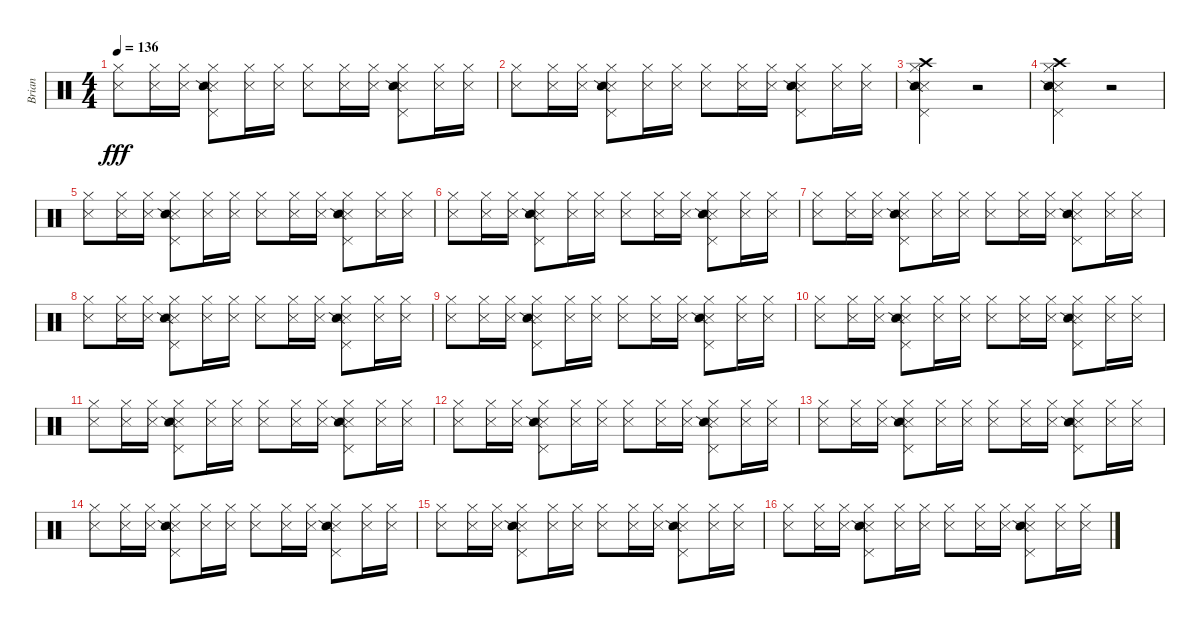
\track ("Brian" "Brian") {instrument percussion}
\staff {score}
\articulation defaults
\ts (4 4)
\tempo 136
\clef neutral
\ks c
("Hi-Hat (closed)" "Metronome (hit)").8{dy fff} ("Hi-Hat (closed)" "Metronome (hit)").16 ("Hi-Hat (closed)" "Metronome (hit)").16 ("Pedal Hi-Hat (hit)" "Snare (side stick) 3" "Hi-Hat (closed)" "Snare (side stick) 2").8 ("Hi-Hat (closed)" "Metronome (hit)").16 ("Hi-Hat (closed)" "Metronome (hit)").16 ("Hi-Hat (closed)" "Metronome (hit)").8 ("Hi-Hat (closed)" "Metronome (hit)").16 ("Hi-Hat (closed)" "Metronome (hit)").16 ("Pedal Hi-Hat (hit)" "Snare (side stick) 3" "Hi-Hat (closed)" "Snare (side stick) 2").8 ("Hi-Hat (closed)" "Metronome (hit)").16 ("Hi-Hat (closed)" "Metronome (hit)").16 |
("Hi-Hat (closed)" "Metronome (hit)").8 ("Hi-Hat (closed)" "Metronome (hit)").16 ("Hi-Hat (closed)" "Metronome (hit)").16 ("Pedal Hi-Hat (hit)" "Snare (side stick) 3" "Hi-Hat (closed)" "Snare (side stick) 2").8 ("Hi-Hat (closed)" "Metronome (hit)").16 ("Hi-Hat (closed)" "Metronome (hit)").16 ("Hi-Hat (closed)" "Metronome (hit)").8 ("Hi-Hat (closed)" "Metronome (hit)").16 ("Hi-Hat (closed)" "Metronome (hit)").16 ("Pedal Hi-Hat (hit)" "Snare (side stick) 3" "Hi-Hat (closed)" "Snare (side stick) 2").8 ("Hi-Hat (closed)" "Metronome (hit)").16 ("Hi-Hat (closed)" "Metronome (hit)").16 |
("Crash high (hit)" "Pedal Hi-Hat (hit)" "Snare (side stick) 3" "Hi-Hat (closed)" "Snare (side stick) 2").2 r.2 |
("Crash high (hit)" "Pedal Hi-Hat (hit)" "Snare (side stick) 3" "Hi-Hat (closed)" "Snare (side stick) 2").2 r.2 |
("Hi-Hat (closed)" "Metronome (hit)").8 ("Hi-Hat (closed)" "Metronome (hit)").16 ("Hi-Hat (closed)" "Metronome (hit)").16 ("Pedal Hi-Hat (hit)" "Snare (side stick) 3" "Hi-Hat (closed)" "Snare (side stick) 2").8 ("Hi-Hat (closed)" "Metronome (hit)").16 ("Hi-Hat (closed)" "Metronome (hit)").16 ("Hi-Hat (closed)" "Metronome (hit)").8 ("Hi-Hat (closed)" "Metronome (hit)").16 ("Hi-Hat (closed)" "Metronome (hit)").16 ("Pedal Hi-Hat (hit)" "Snare (side stick) 3" "Hi-Hat (closed)" "Snare (side stick) 2").8 ("Hi-Hat (closed)" "Metronome (hit)").16 ("Hi-Hat (closed)" "Metronome (hit)").16 |
("Hi-Hat (closed)" "Metronome (hit)").8 ("Hi-Hat (closed)" "Metronome (hit)").16 ("Hi-Hat (closed)" "Metronome (hit)").16 ("Pedal Hi-Hat (hit)" "Snare (side stick) 3" "Hi-Hat (closed)" "Snare (side stick) 2").8 ("Hi-Hat (closed)" "Metronome (hit)").16 ("Hi-Hat (closed)" "Metronome (hit)").16 ("Hi-Hat (closed)" "Metronome (hit)").8 ("Hi-Hat (closed)" "Metronome (hit)").16 ("Hi-Hat (closed)" "Metronome (hit)").16 ("Pedal Hi-Hat (hit)" "Snare (side stick) 3" "Hi-Hat (closed)" "Snare (side stick) 2").8 ("Hi-Hat (closed)" "Metronome (hit)").16 ("Hi-Hat (closed)" "Metronome (hit)").16 |
("Hi-Hat (closed)" "Metronome (hit)").8 ("Hi-Hat (closed)" "Metronome (hit)").16 ("Hi-Hat (closed)" "Metronome (hit)").16 ("Pedal Hi-Hat (hit)" "Snare (side stick) 3" "Hi-Hat (closed)" "Snare (side stick) 2").8 ("Hi-Hat (closed)" "Metronome (hit)").16 ("Hi-Hat (closed)" "Metronome (hit)").16 ("Hi-Hat (closed)" "Metronome (hit)").8 ("Hi-Hat (closed)" "Metronome (hit)").16 ("Hi-Hat (closed)" "Metronome (hit)").16 ("Pedal Hi-Hat (hit)" "Snare (side stick) 3" "Hi-Hat (closed)" "Snare (side stick) 2").8 ("Hi-Hat (closed)" "Metronome (hit)").16 ("Hi-Hat (closed)" "Metronome (hit)").16 |
("Hi-Hat (closed)" "Metronome (hit)").8 ("Hi-Hat (closed)" "Metronome (hit)").16 ("Hi-Hat (closed)" "Metronome (hit)").16 ("Pedal Hi-Hat (hit)" "Snare (side stick) 3" "Hi-Hat (closed)" "Snare (side stick) 2").8 ("Hi-Hat (closed)" "Metronome (hit)").16 ("Hi-Hat (closed)" "Metronome (hit)").16 ("Hi-Hat (closed)" "Metronome (hit)").8 ("Hi-Hat (closed)" "Metronome (hit)").16 ("Hi-Hat (closed)" "Metronome (hit)").16 ("Pedal Hi-Hat (hit)" "Snare (side stick) 3" "Hi-Hat (closed)" "Snare (side stick) 2").8 ("Hi-Hat (closed)" "Metronome (hit)").16 ("Hi-Hat (closed)" "Metronome (hit)").16 |
("Hi-Hat (closed)" "Metronome (hit)").8 ("Hi-Hat (closed)" "Metronome (hit)").16 ("Hi-Hat (closed)" "Metronome (hit)").16 ("Pedal Hi-Hat (hit)" "Snare (side stick) 3" "Hi-Hat (closed)" "Snare (side stick) 2").8 ("Hi-Hat (closed)" "Metronome (hit)").16 ("Hi-Hat (closed)" "Metronome (hit)").16 ("Hi-Hat (closed)" "Metronome (hit)").8 ("Hi-Hat (closed)" "Metronome (hit)").16 ("Hi-Hat (closed)" "Metronome (hit)").16 ("Pedal Hi-Hat (hit)" "Snare (side stick) 3" "Hi-Hat (closed)" "Snare (side stick) 2").8 ("Hi-Hat (closed)" "Metronome (hit)").16 ("Hi-Hat (closed)" "Metronome (hit)").16 |
("Hi-Hat (closed)" "Metronome (hit)").8 ("Hi-Hat (closed)" "Metronome (hit)").16 ("Hi-Hat (closed)" "Metronome (hit)").16 ("Pedal Hi-Hat (hit)" "Snare (side stick) 3" "Hi-Hat (closed)" "Snare (side stick) 2").8 ("Hi-Hat (closed)" "Metronome (hit)").16 ("Hi-Hat (closed)" "Metronome (hit)").16 ("Hi-Hat (closed)" "Metronome (hit)").8 ("Hi-Hat (closed)" "Metronome (hit)").16 ("Hi-Hat (closed)" "Metronome (hit)").16 ("Pedal Hi-Hat (hit)" "Snare (side stick) 3" "Hi-Hat (closed)" "Snare (side stick) 2").8 ("Hi-Hat (closed)" "Metronome (hit)").16 ("Hi-Hat (closed)" "Metronome (hit)").16 |
("Hi-Hat (closed)" "Metronome (hit)").8 ("Hi-Hat (closed)" "Metronome (hit)").16 ("Hi-Hat (closed)" "Metronome (hit)").16 ("Pedal Hi-Hat (hit)" "Snare (side stick) 3" "Hi-Hat (closed)" "Snare (side stick) 2").8 ("Hi-Hat (closed)" "Metronome (hit)").16 ("Hi-Hat (closed)" "Metronome (hit)").16 ("Hi-Hat (closed)" "Metronome (hit)").8 ("Hi-Hat (closed)" "Metronome (hit)").16 ("Hi-Hat (closed)" "Metronome (hit)").16 ("Pedal Hi-Hat (hit)" "Snare (side stick) 3" "Hi-Hat (closed)" "Snare (side stick) 2").8 ("Hi-Hat (closed)" "Metronome (hit)").16 ("Hi-Hat (closed)" "Metronome (hit)").16 |
("Hi-Hat (closed)" "Metronome (hit)").8 ("Hi-Hat (closed)" "Metronome (hit)").16 ("Hi-Hat (closed)" "Metronome (hit)").16 ("Pedal Hi-Hat (hit)" "Snare (side stick) 3" "Hi-Hat (closed)" "Snare (side stick) 2").8 ("Hi-Hat (closed)" "Metronome (hit)").16 ("Hi-Hat (closed)" "Metronome (hit)").16 ("Hi-Hat (closed)" "Metronome (hit)").8 ("Hi-Hat (closed)" "Metronome (hit)").16 ("Hi-Hat (closed)" "Metronome (hit)").16 ("Pedal Hi-Hat (hit)" "Snare (side stick) 3" "Hi-Hat (closed)" "Snare (side stick) 2").8 ("Hi-Hat (closed)" "Metronome (hit)").16 ("Hi-Hat (closed)" "Metronome (hit)").16 |
("Hi-Hat (closed)" "Metronome (hit)").8 ("Hi-Hat (closed)" "Metronome (hit)").16 ("Hi-Hat (closed)" "Metronome (hit)").16 ("Pedal Hi-Hat (hit)" "Snare (side stick) 3" "Hi-Hat (closed)" "Snare (side stick) 2").8 ("Hi-Hat (closed)" "Metronome (hit)").16 ("Hi-Hat (closed)" "Metronome (hit)").16 ("Hi-Hat (closed)" "Metronome (hit)").8 ("Hi-Hat (closed)" "Metronome (hit)").16 ("Hi-Hat (closed)" "Metronome (hit)").16 ("Pedal Hi-Hat (hit)" "Snare (side stick) 3" "Hi-Hat (closed)" "Snare (side stick) 2").8 ("Hi-Hat (closed)" "Metronome (hit)").16 ("Hi-Hat (closed)" "Metronome (hit)").16 |
("Hi-Hat (closed)" "Metronome (hit)").8 ("Hi-Hat (closed)" "Metronome (hit)").16 ("Hi-Hat (closed)" "Metronome (hit)").16 ("Pedal Hi-Hat (hit)" "Snare (side stick) 3" "Hi-Hat (closed)" "Snare (side stick) 2").8 ("Hi-Hat (closed)" "Metronome (hit)").16 ("Hi-Hat (closed)" "Metronome (hit)").16 ("Hi-Hat (closed)" "Metronome (hit)").8 ("Hi-Hat (closed)" "Metronome (hit)").16 ("Hi-Hat (closed)" "Metronome (hit)").16 ("Pedal Hi-Hat (hit)" "Snare (side stick) 3" "Hi-Hat (closed)" "Snare (side stick) 2").8 ("Hi-Hat (closed)" "Metronome (hit)").16 ("Hi-Hat (closed)" "Metronome (hit)").16 |
("Hi-Hat (closed)" "Metronome (hit)").8 ("Hi-Hat (closed)" "Metronome (hit)").16 ("Hi-Hat (closed)" "Metronome (hit)").16 ("Pedal Hi-Hat (hit)" "Snare (side stick) 3" "Hi-Hat (closed)" "Snare (side stick) 2").8 ("Hi-Hat (closed)" "Metronome (hit)").16 ("Hi-Hat (closed)" "Metronome (hit)").16 ("Hi-Hat (closed)" "Metronome (hit)").8 ("Hi-Hat (closed)" "Metronome (hit)").16 ("Hi-Hat (closed)" "Metronome (hit)").16 ("Pedal Hi-Hat (hit)" "Snare (side stick) 3" "Hi-Hat (closed)" "Snare (side stick) 2").8 ("Hi-Hat (closed)" "Metronome (hit)").16 ("Hi-Hat (closed)" "Metronome (hit)").16 |
("Hi-Hat (closed)" "Metronome (hit)").8 ("Hi-Hat (closed)" "Metronome (hit)").16 ("Hi-Hat (closed)" "Metronome (hit)").16 ("Pedal Hi-Hat (hit)" "Snare (side stick) 3" "Hi-Hat (closed)" "Snare (side stick) 2").8 ("Hi-Hat (closed)" "Metronome (hit)").16 ("Hi-Hat (closed)" "Metronome (hit)").16 ("Hi-Hat (closed)" "Metronome (hit)").8 ("Hi-Hat (closed)" "Metronome (hit)").16 ("Hi-Hat (closed)" "Metronome (hit)").16 ("Pedal Hi-Hat (hit)" "Snare (side stick) 3" "Hi-Hat (closed)" "Snare (side stick) 2").8 ("Hi-Hat (closed)" "Metronome (hit)").16 ("Hi-Hat (closed)" "Metronome (hit)").16
